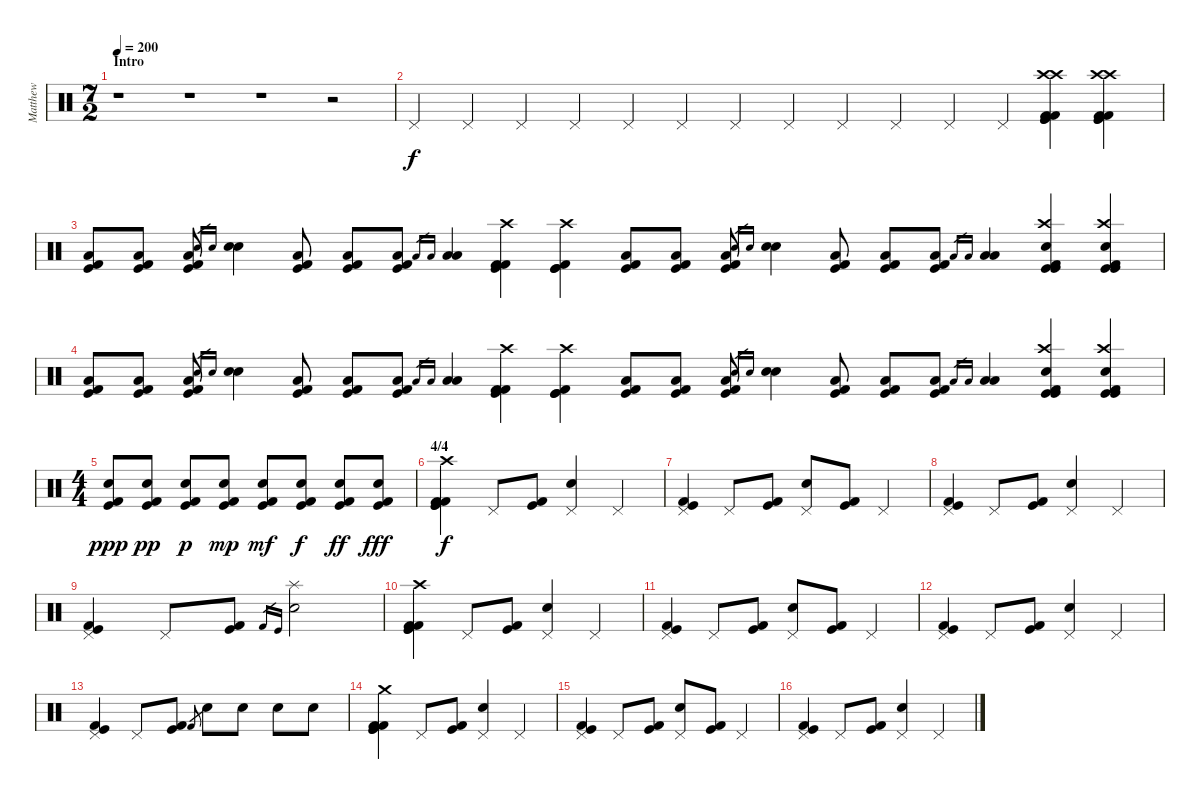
\track ("Matthew" "Matthew") {instrument percussion}
\staff {score}
\articulation defaults
\ts (7 2)
\section ("" "Intro")
\tempo 200
\clef neutral
\ks c
r.1{dy f} r.1 r.1 r.2 |
"Pedal Hi-Hat (hit)".4 "Pedal Hi-Hat (hit)".4 "Pedal Hi-Hat (hit)".4 "Pedal Hi-Hat (hit)".4 "Pedal Hi-Hat (hit)".4 "Pedal Hi-Hat (hit)".4 "Pedal Hi-Hat (hit)".4 "Pedal Hi-Hat (hit)".4 "Pedal Hi-Hat (hit)".4 "Pedal Hi-Hat (hit)".4 "Pedal Hi-Hat (hit)".4 "Pedal Hi-Hat (hit)".4 ("Kick (hit)" "Kick (hit) 2" "Kick (hit)" "Kick (hit) 2" "Crash high (hit)" "Crash high (hit)").4 ("Kick (hit) 2" "Kick (hit) 2" "Kick (hit)" "Kick (hit)" "Crash high (hit)" "Crash high (hit)").4 |
("Kick (hit) 2" "Low Floor Tom (hit)" "Kick (hit)").8 ("Kick (hit) 2" "Low Floor Tom (hit)" "Kick (hit)").8 ("Kick (hit) 2" "Low Floor Tom (hit)" "Kick (hit)").8 "Snare (hit) 2".16{gr} "Snare (hit) 2".16{gr} ("Snare (hit) 2" "Snare (hit) 2").4 ("Kick (hit) 2" "Low Floor Tom (hit)" "Kick (hit)").8 ("Kick (hit) 2" "Low Floor Tom (hit)" "Kick (hit)").8 ("Kick (hit) 2" "Low Floor Tom (hit)" "Kick (hit)").8 "Low Tom (hit)".16{gr} "Low Tom (hit)".16{gr} ("Low Tom (hit)" "Low Tom (hit)").4 ("Crash high (hit)" "Kick (hit) 2" "Kick (hit)" "Kick (hit) 2").4 ("Crash high (hit)" "Kick (hit)" "Kick (hit) 2" "Kick (hit)").4 ("Kick (hit) 2" "Low Floor Tom (hit)" "Kick (hit)").8 ("Kick (hit) 2" "Low Floor Tom (hit)" "Kick (hit)").8 ("Kick (hit) 2" "Low Floor Tom (hit)" "Kick (hit)").8 "Snare (hit) 2".16{gr} "Snare (hit) 2".16{gr} ("Snare (hit) 2" "Snare (hit) 2").4 ("Kick (hit) 2" "Low Floor Tom (hit)" "Kick (hit)").8 ("Kick (hit) 2" "Low Floor Tom (hit)" "Kick (hit)").8 ("Kick (hit) 2" "Low Floor Tom (hit)" "Kick (hit)").8 "Low Tom (hit)".16{gr} "Low Tom (hit)".16{gr} ("Low Tom (hit)" "Low Tom (hit)").4 ("Kick (hit) 2" "Kick (hit)" "Kick (hit)" "Crash high (hit)" "Snare (hit) 2").4 ("Kick (hit) 2" "Kick (hit)" "Kick (hit)" "Crash high (hit)" "Snare (hit) 2").4 |
("Kick (hit) 2" "Low Floor Tom (hit)" "Kick (hit)").8 ("Kick (hit) 2" "Low Floor Tom (hit)" "Kick (hit)").8 ("Kick (hit) 2" "Low Floor Tom (hit)" "Kick (hit)").8 "Snare (hit) 2".16{gr} "Snare (hit) 2".16{gr} ("Snare (hit) 2" "Snare (hit) 2").4 ("Kick (hit) 2" "Low Floor Tom (hit)" "Kick (hit)").8 ("Kick (hit) 2" "Low Floor Tom (hit)" "Kick (hit)").8 ("Kick (hit) 2" "Low Floor Tom (hit)" "Kick (hit)").8 "Low Tom (hit)".16{gr} "Low Tom (hit)".16{gr} ("Low Tom (hit)" "Low Tom (hit)").4 ("Crash high (hit)" "Kick (hit) 2" "Kick (hit)" "Kick (hit) 2").4 ("Crash high (hit)" "Kick (hit)" "Kick (hit) 2" "Kick (hit)").4 ("Kick (hit) 2" "Low Floor Tom (hit)" "Kick (hit)").8 ("Kick (hit) 2" "Low Floor Tom (hit)" "Kick (hit)").8 ("Kick (hit) 2" "Low Floor Tom (hit)" "Kick (hit)").8 "Snare (hit) 2".16{gr} "Snare (hit) 2".16{gr} ("Snare (hit) 2" "Snare (hit) 2").4 ("Kick (hit) 2" "Low Floor Tom (hit)" "Kick (hit)").8 ("Kick (hit) 2" "Low Floor Tom (hit)" "Kick (hit)").8 ("Kick (hit) 2" "Low Floor Tom (hit)" "Kick (hit)").8 "Low Tom (hit)".16{gr} "Low Tom (hit)".16{gr} ("Low Tom (hit)" "Low Tom (hit)").4 ("Kick (hit) 2" "Kick (hit)" "Kick (hit)" "Crash high (hit)" "Snare (hit) 2").4 ("Kick (hit) 2" "Kick (hit)" "Kick (hit)" "Crash high (hit)" "Snare (hit) 2").4 |
\ts (4 4)
("Kick (hit) 2" "Snare (hit) 2" "Kick (hit)").8{dy ppp} ("Kick (hit) 2" "Snare (hit) 2" "Kick (hit)").8{dy pp} ("Kick (hit) 2" "Snare (hit) 2" "Kick (hit)").8{dy p} ("Kick (hit) 2" "Snare (hit) 2" "Kick (hit)").8{dy mp} ("Kick (hit) 2" "Snare (hit) 2" "Kick (hit)").8{dy mf} ("Kick (hit) 2" "Snare (hit) 2" "Kick (hit)").8{dy f} ("Kick (hit) 2" "Snare (hit) 2" "Kick (hit)").8{dy ff} ("Kick (hit) 2" "Snare (hit) 2" "Kick (hit)").8{dy fff} |
\section ("" "4/4")
("Kick (hit) 2" "Kick (hit)" "Kick (hit) 2" "Kick (hit)" "Crash high (hit)").4{dy f} "Pedal Hi-Hat (hit)".8 ("Kick (hit) 2" "Kick (hit)").8 ("Pedal Hi-Hat (hit)" "Snare (hit) 2").4 "Pedal Hi-Hat (hit)".4 |
("Kick (hit) 2" "Kick (hit)" "Pedal Hi-Hat (hit)").4 "Pedal Hi-Hat (hit)".8 ("Kick (hit) 2" "Kick (hit)").8 ("Pedal Hi-Hat (hit)" "Snare (hit) 2").8 ("Kick (hit) 2" "Kick (hit)").8 "Pedal Hi-Hat (hit)".4 |
("Kick (hit) 2" "Kick (hit)" "Pedal Hi-Hat (hit)").4 "Pedal Hi-Hat (hit)".8 ("Kick (hit) 2" "Kick (hit)").8 ("Pedal Hi-Hat (hit)" "Snare (hit) 2").4 "Pedal Hi-Hat (hit)".4 |
("Kick (hit) 2" "Kick (hit)" "Pedal Hi-Hat (hit)").4 "Pedal Hi-Hat (hit)".8 ("Kick (hit) 2" "Kick (hit)").8 "Kick (hit) 2".16{gr} "Kick (hit)".16{gr} ("Snare (hit) 2" "Splash (hit)").2 |
("Kick (hit) 2" "Kick (hit)" "Kick (hit) 2" "Kick (hit)" "Crash high (hit)").4 "Pedal Hi-Hat (hit)".8 ("Kick (hit) 2" "Kick (hit)").8 ("Pedal Hi-Hat (hit)" "Snare (hit) 2").4 "Pedal Hi-Hat (hit)".4 |
("Kick (hit) 2" "Kick (hit)" "Pedal Hi-Hat (hit)").4 "Pedal Hi-Hat (hit)".8 ("Kick (hit) 2" "Kick (hit)").8 ("Pedal Hi-Hat (hit)" "Snare (hit) 2").8 ("Kick (hit) 2" "Kick (hit)").8 "Pedal Hi-Hat (hit)".4 |
("Kick (hit) 2" "Kick (hit)" "Pedal Hi-Hat (hit)").4 "Pedal Hi-Hat (hit)".8 ("Kick (hit) 2" "Kick (hit)").8 ("Pedal Hi-Hat (hit)" "Snare (hit) 2").4 "Pedal Hi-Hat (hit)".4 |
("Kick (hit) 2" "Kick (hit)" "Pedal Hi-Hat (hit)").4 "Pedal Hi-Hat (hit)".8 ("Kick (hit) 2" "Kick (hit)").8 "Kick (hit) 2".8{gr} "Snare (hit) 2".8 "Snare (hit) 2".8 "Snare (hit) 2".8 "Snare (hit) 2".8 |
("Kick (hit) 2" "Kick (hit)" "Kick (hit) 2" "Kick (hit)" "Crash medium (hit)").4 "Pedal Hi-Hat (hit)".8 ("Kick (hit) 2" "Kick (hit)").8 ("Pedal Hi-Hat (hit)" "Snare (hit) 2").4 "Pedal Hi-Hat (hit)".4 |
("Kick (hit) 2" "Kick (hit)" "Pedal Hi-Hat (hit)").4 "Pedal Hi-Hat (hit)".8 ("Kick (hit) 2" "Kick (hit)").8 ("Pedal Hi-Hat (hit)" "Snare (hit) 2").8 ("Kick (hit) 2" "Kick (hit)").8 "Pedal Hi-Hat (hit)".4 |
("Kick (hit) 2" "Kick (hit)" "Pedal Hi-Hat (hit)").4 "Pedal Hi-Hat (hit)".8 ("Kick (hit) 2" "Kick (hit)").8 ("Pedal Hi-Hat (hit)" "Snare (hit) 2").4 "Pedal Hi-Hat (hit)".4
